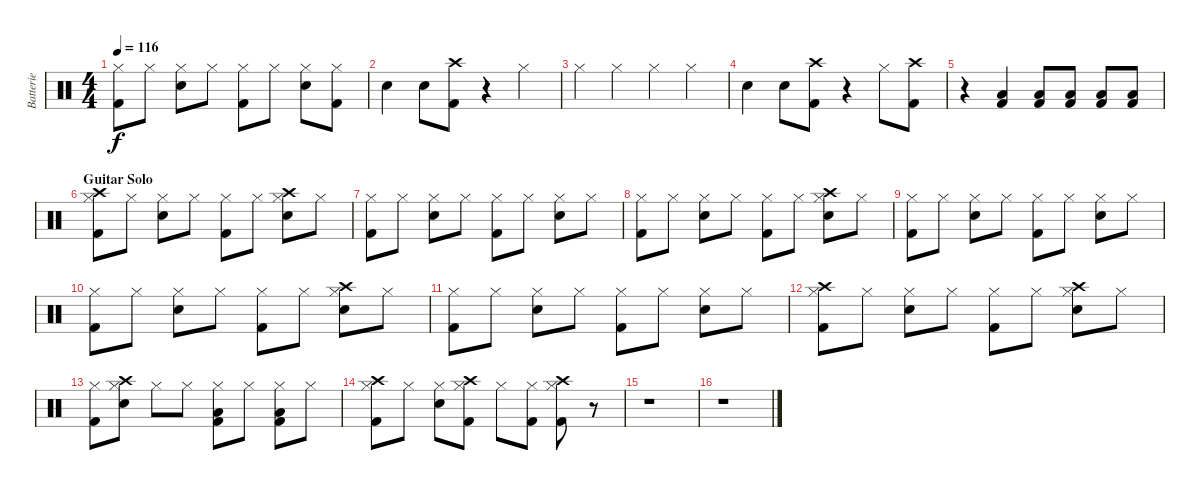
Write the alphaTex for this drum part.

\track ("Batterie" "Batterie") {instrument percussion}
\staff {score}
\articulation defaults
\ts (4 4)
\tempo 116
\clef neutral
\ks c
("Hi-Hat (closed)" "Kick (hit) 2").8{dy f} "Hi-Hat (closed)".8 ("Hi-Hat (closed)" "Snare (hit) 2").8 "Hi-Hat (closed)".8 ("Hi-Hat (closed)" "Kick (hit) 2").8 "Hi-Hat (closed)".8 ("Hi-Hat (closed)" "Snare (hit) 2").8 ("Hi-Hat (closed)" "Kick (hit) 2").8 |
"Snare (hit) 2".4 "Snare (hit) 2".8 ("Crash high (hit)" "Kick (hit) 2").8 r.4 "Hi-Hat (closed)".4 |
"Hi-Hat (closed)".4 "Hi-Hat (closed)".4 "Hi-Hat (closed)".4 "Hi-Hat (closed)".4 |
"Snare (hit) 2".4 "Snare (hit) 2".8 ("Crash high (hit)" "Kick (hit) 2").8 r.4 "Hi-Hat (closed)".8 ("Crash high (hit)" "Kick (hit) 2").8 |
r.4 ("Low Tom (hit)" "Kick (hit) 2").4 ("Low Tom (hit)" "Kick (hit) 2").8 ("Low Tom (hit)" "Kick (hit) 2").8 ("Low Tom (hit)" "Kick (hit) 2").8 ("Low Tom (hit)" "Kick (hit) 2").8 |
\section ("" "Guitar Solo")
("Hi-Hat (closed)" "Crash high (hit)" "Kick (hit) 2").8 "Hi-Hat (closed)".8 ("Hi-Hat (closed)" "Snare (hit) 2").8 "Hi-Hat (closed)".8 ("Hi-Hat (closed)" "Kick (hit) 2").8 "Hi-Hat (closed)".8 ("Hi-Hat (closed)" "Crash high (hit)" "Snare (hit) 2").8 "Hi-Hat (closed)".8 |
("Hi-Hat (closed)" "Kick (hit) 2").8 "Hi-Hat (closed)".8 ("Hi-Hat (closed)" "Snare (hit) 2").8 "Hi-Hat (closed)".8 ("Hi-Hat (closed)" "Kick (hit) 2").8 "Hi-Hat (closed)".8 ("Hi-Hat (closed)" "Snare (hit) 2").8 "Hi-Hat (closed)".8 |
("Hi-Hat (closed)" "Kick (hit) 2").8 "Hi-Hat (closed)".8 ("Hi-Hat (closed)" "Snare (hit) 2").8 "Hi-Hat (closed)".8 ("Hi-Hat (closed)" "Kick (hit) 2").8 "Hi-Hat (closed)".8 ("Hi-Hat (closed)" "Crash high (hit)" "Snare (hit) 2").8 "Hi-Hat (closed)".8 |
("Hi-Hat (closed)" "Kick (hit) 2").8 "Hi-Hat (closed)".8 ("Hi-Hat (closed)" "Snare (hit) 2").8 "Hi-Hat (closed)".8 ("Hi-Hat (closed)" "Kick (hit) 2").8 "Hi-Hat (closed)".8 ("Hi-Hat (closed)" "Snare (hit) 2").8 "Hi-Hat (closed)".8 |
("Hi-Hat (closed)" "Kick (hit) 2").8 "Hi-Hat (closed)".8 ("Hi-Hat (closed)" "Snare (hit) 2").8 "Hi-Hat (closed)".8 ("Hi-Hat (closed)" "Kick (hit) 2").8 "Hi-Hat (closed)".8 ("Hi-Hat (closed)" "Crash high (hit)" "Snare (hit) 2").8 "Hi-Hat (closed)".8 |
("Hi-Hat (closed)" "Kick (hit) 2").8 "Hi-Hat (closed)".8 ("Hi-Hat (closed)" "Snare (hit) 2").8 "Hi-Hat (closed)".8 ("Hi-Hat (closed)" "Kick (hit) 2").8 "Hi-Hat (closed)".8 ("Hi-Hat (closed)" "Snare (hit) 2").8 "Hi-Hat (closed)".8 |
("Hi-Hat (closed)" "Crash high (hit)" "Kick (hit) 2").8 "Hi-Hat (closed)".8 ("Hi-Hat (closed)" "Snare (hit) 2").8 "Hi-Hat (closed)".8 ("Hi-Hat (closed)" "Kick (hit) 2").8 "Hi-Hat (closed)".8 ("Hi-Hat (closed)" "Crash high (hit)" "Snare (hit) 2").8 "Hi-Hat (closed)".8 |
("Hi-Hat (closed)" "Kick (hit) 2").8 ("Hi-Hat (closed)" "Crash high (hit)" "Snare (hit) 2").8 "Hi-Hat (closed)".8 "Hi-Hat (closed)".8 ("Hi-Hat (closed)" "Low Tom (hit)" "Kick (hit) 2").8 "Hi-Hat (closed)".8 ("Hi-Hat (closed)" "Low Tom (hit)" "Kick (hit) 2").8 "Hi-Hat (closed)".8 |
("Hi-Hat (closed)" "Crash high (hit)" "Kick (hit) 2").8 "Hi-Hat (closed)".8 ("Hi-Hat (closed)" "Snare (hit) 2").8 ("Hi-Hat (closed)" "Crash high (hit)" "Kick (hit) 2").8 "Hi-Hat (closed)".8 ("Hi-Hat (closed)" "Kick (hit) 2").8 ("Hi-Hat (closed)" "Crash high (hit)" "Kick (hit) 2").8 r.8 |
r.1 |
r.1
